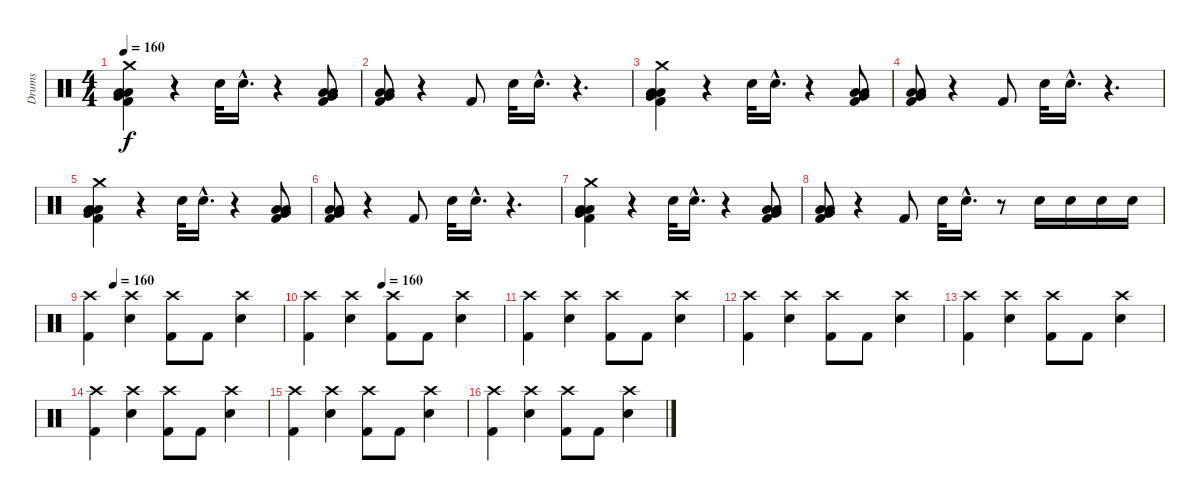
\track ("Drums" "Drums") {instrument percussion}
\staff {score}
\articulation defaults
\ts (4 4)
\tempo 160
\clef neutral
\ks c
("Crash medium (hit)" "Very Low Tom (hit)" "Kick (hit) 2" "Low Tom (hit)" "Low Floor Tom (hit)").4{dy f} r.4 "Electric Snare (hit)".32 "Electric Snare (hit)"{hac}.16{d} r.4 ("Very Low Tom (hit)" "Kick (hit) 2" "Low Floor Tom (hit)" "Low Tom (hit)").8 |
("Very Low Tom (hit)" "Kick (hit) 2" "Low Floor Tom (hit)" "Low Tom (hit)").8 r.4 "Kick (hit) 2".8 "Electric Snare (hit)".32 "Electric Snare (hit)"{hac}.16{d} r.4{d} |
("Crash medium (hit)" "Very Low Tom (hit)" "Kick (hit) 2" "Low Tom (hit)" "Low Floor Tom (hit)").4 r.4 "Electric Snare (hit)".32 "Electric Snare (hit)"{hac}.16{d} r.4 ("Very Low Tom (hit)" "Kick (hit) 2" "Low Floor Tom (hit)" "Low Tom (hit)").8 |
("Very Low Tom (hit)" "Kick (hit) 2" "Low Floor Tom (hit)" "Low Tom (hit)").8 r.4 "Kick (hit) 2".8 "Electric Snare (hit)".32 "Electric Snare (hit)"{hac}.16{d} r.4{d} |
("Crash medium (hit)" "Very Low Tom (hit)" "Kick (hit) 2" "Low Tom (hit)" "Low Floor Tom (hit)").4 r.4 "Electric Snare (hit)".32 "Electric Snare (hit)"{hac}.16{d} r.4 ("Very Low Tom (hit)" "Kick (hit) 2" "Low Floor Tom (hit)" "Low Tom (hit)").8 |
("Very Low Tom (hit)" "Kick (hit) 2" "Low Floor Tom (hit)" "Low Tom (hit)").8 r.4 "Kick (hit) 2".8 "Electric Snare (hit)".32 "Electric Snare (hit)"{hac}.16{d} r.4{d} |
("Crash medium (hit)" "Very Low Tom (hit)" "Kick (hit) 2" "Low Tom (hit)" "Low Floor Tom (hit)").4 r.4 "Electric Snare (hit)".32 "Electric Snare (hit)"{hac}.16{d} r.4 ("Very Low Tom (hit)" "Kick (hit) 2" "Low Floor Tom (hit)" "Low Tom (hit)").8 |
("Very Low Tom (hit)" "Kick (hit) 2" "Low Floor Tom (hit)" "Low Tom (hit)").8 r.4 "Kick (hit) 2".8 "Electric Snare (hit)".32 "Electric Snare (hit)"{hac}.16{d} r.8 "Electric Snare (hit)".16 "Electric Snare (hit)".16 "Electric Snare (hit)".16 "Electric Snare (hit)".16 |
\tempo (160 0.125)
("Kick (hit) 2" "Crash high (hit)").4 ("Electric Snare (hit)" "Crash high (hit)").4 ("Kick (hit) 2" "Crash high (hit)").8 "Kick (hit) 2".8 ("Electric Snare (hit)" "Crash high (hit)").4 |
\tempo (160 0.375)
("Kick (hit) 2" "Crash high (hit)").4 ("Electric Snare (hit)" "Crash high (hit)").4 ("Kick (hit) 2" "Crash high (hit)").8 "Kick (hit) 2".8 ("Electric Snare (hit)" "Crash high (hit)").4 |
("Kick (hit) 2" "Crash high (hit)").4 ("Electric Snare (hit)" "Crash high (hit)").4 ("Kick (hit) 2" "Crash high (hit)").8 "Kick (hit) 2".8 ("Electric Snare (hit)" "Crash high (hit)").4 |
("Kick (hit) 2" "Crash high (hit)").4 ("Electric Snare (hit)" "Crash high (hit)").4 ("Kick (hit) 2" "Crash high (hit)").8 "Kick (hit) 2".8 ("Electric Snare (hit)" "Crash high (hit)").4 |
("Kick (hit) 2" "Crash high (hit)").4 ("Electric Snare (hit)" "Crash high (hit)").4 ("Kick (hit) 2" "Crash high (hit)").8 "Kick (hit) 2".8 ("Electric Snare (hit)" "Crash high (hit)").4 |
("Kick (hit) 2" "Crash high (hit)").4 ("Electric Snare (hit)" "Crash high (hit)").4 ("Kick (hit) 2" "Crash high (hit)").8 "Kick (hit) 2".8 ("Electric Snare (hit)" "Crash high (hit)").4 |
("Kick (hit) 2" "Crash high (hit)").4 ("Electric Snare (hit)" "Crash high (hit)").4 ("Kick (hit) 2" "Crash high (hit)").8 "Kick (hit) 2".8 ("Electric Snare (hit)" "Crash high (hit)").4 |
("Kick (hit) 2" "Crash high (hit)").4 ("Electric Snare (hit)" "Crash high (hit)").4 ("Kick (hit) 2" "Crash high (hit)").8 "Kick (hit) 2".8 ("Electric Snare (hit)" "Crash high (hit)").4
